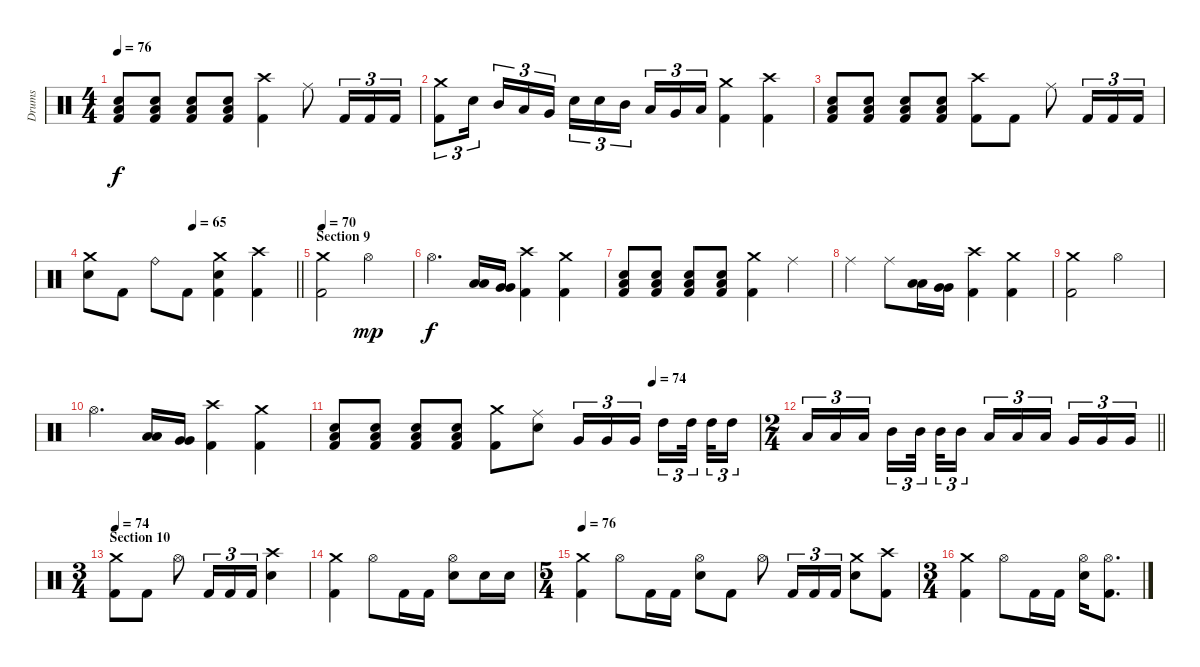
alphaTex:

\track ("Drums" "Drums") {instrument percussion}
\staff {score}
\articulation defaults
\ts (4 4)
\tempo 76
\clef neutral
\ks c
("Low Floor Tom (hit)" "Electric Snare (hit)" "Kick (hit) 2").8{dy f} ("Low Floor Tom (hit)" "Electric Snare (hit)" "Kick (hit) 2").8 ("Low Floor Tom (hit)" "Electric Snare (hit)" "Kick (hit) 2").8 ("Low Floor Tom (hit)" "Electric Snare (hit)" "Kick (hit) 2").8 ("Crash high (hit)" "Kick (hit) 2").4 "Ride (middle)".8 "Kick (hit) 2".16{tu (3 2)} "Kick (hit) 2".16{tu (3 2)} "Kick (hit) 2".16{tu (3 2)} |
("Crash medium (hit)" "Kick (hit) 2").8{tu (3 2)} "Electric Snare (hit)".16{tu (3 2) beam splitsecondary} "Mid Tom (hit)".16{tu (3 2)} "Low Tom (hit)".16{tu (3 2)} "Very Low Tom (hit)".16{tu (3 2)} "Electric Snare (hit)".16{tu (3 2)} "Electric Snare (hit)".16{tu (3 2)} "Mid Tom (hit)".16{tu (3 2) beam splitsecondary} "Low Tom (hit)".16{tu (3 2)} "Very Low Tom (hit)".16{tu (3 2)} "Low Floor Tom (hit)".16{tu (3 2)} ("Crash medium (hit)" "Kick (hit) 2").4 ("Crash high (hit)" "Kick (hit) 2").4 |
("Low Floor Tom (hit)" "Electric Snare (hit)" "Kick (hit) 2").8 ("Low Floor Tom (hit)" "Electric Snare (hit)" "Kick (hit) 2").8 ("Low Floor Tom (hit)" "Electric Snare (hit)" "Kick (hit) 2").8 ("Low Floor Tom (hit)" "Electric Snare (hit)" "Kick (hit) 2").8 ("Crash high (hit)" "Kick (hit) 2").8 "Kick (hit) 2".8 "Ride (middle)".8 "Kick (hit) 2".16{tu (3 2)} "Kick (hit) 2".16{tu (3 2)} "Kick (hit) 2".16{tu (3 2)} |
\tempo (65 0.5)
\barLineRight lightlight
("Crash medium (hit)" "Electric Snare (hit)").8 "Kick (hit) 2".8 "Ride (bell)".8 "Kick (hit) 2".8 ("Crash medium (hit)" "Electric Snare (hit)" "Kick (hit) 2").4 ("Crash high (hit)" "Kick (hit) 2").4 |
\section ("" "Section 9")
\tempo 70
("Crash medium (hit)" "Kick (hit) 2").2 "Hi-Hat (open)".2{dy mp} |
"Hi-Hat (open)".4{d dy f} ("Low Tom (hit)" "Low Tom (hit)").16 ("Very Low Tom (hit)" "Very Low Tom (hit)").16 ("Crash high (hit)" "Kick (hit) 2").4 ("Crash medium (hit)" "Kick (hit) 2").4 |
("Low Floor Tom (hit)" "Electric Snare (hit)" "Kick (hit) 2").8 ("Low Floor Tom (hit)" "Electric Snare (hit)" "Kick (hit) 2").8 ("Low Floor Tom (hit)" "Electric Snare (hit)" "Kick (hit) 2").8 ("Low Floor Tom (hit)" "Electric Snare (hit)" "Kick (hit) 2").8 ("Crash medium (hit)" "Kick (hit) 2").4 "Ride (middle)".4 |
"Ride (middle)".4 "Ride (middle)".8 ("Low Tom (hit)" "Low Tom (hit)").16 ("Very Low Tom (hit)" "Very Low Tom (hit)").16 ("Crash high (hit)" "Kick (hit) 2").4 ("Crash medium (hit)" "Kick (hit) 2").4 |
("Crash medium (hit)" "Kick (hit) 2").2 "Hi-Hat (open)".2 |
"Hi-Hat (open)".4{d} ("Low Tom (hit)" "Low Tom (hit)").16 ("Very Low Tom (hit)" "Very Low Tom (hit)").16 ("Crash high (hit)" "Kick (hit) 2").4 ("Crash medium (hit)" "Kick (hit) 2").4 |
\tempo (74 0.75)
("Low Floor Tom (hit)" "Electric Snare (hit)" "Kick (hit) 2").8 ("Low Floor Tom (hit)" "Electric Snare (hit)" "Kick (hit) 2").8 ("Low Floor Tom (hit)" "Electric Snare (hit)" "Kick (hit) 2").8 ("Low Floor Tom (hit)" "Electric Snare (hit)" "Kick (hit) 2").8 ("Crash medium (hit)" "Kick (hit) 2").8 ("Ride (middle)" "Electric Snare (hit)").8 "Very Low Tom (hit)".16{tu (3 2)} "Very Low Tom (hit)".16{tu (3 2)} "Very Low Tom (hit)".16{tu (3 2) beam splitsecondary} "High Tom (hit)".16{tu (3 2)} "High Tom (hit)".32{tu (3 2) beam splitsecondary} "High Tom (hit)".32{tu (3 2)} "High Tom (hit)".16{tu (3 2)} |
\ts (2 4)
\barLineRight lightlight "Low Tom (hit)".16{tu (3 2)} "Low Tom (hit)".16{tu (3 2)} "Low Tom (hit)".16{tu (3 2) beam splitsecondary} "Mid Tom (hit)".16{tu (3 2)} "Mid Tom (hit)".32{tu (3 2) beam splitsecondary} "Mid Tom (hit)".32{tu (3 2)} "Mid Tom (hit)".16{tu (3 2)} "Low Floor Tom (hit)".16{tu (3 2)} "Low Floor Tom (hit)".16{tu (3 2)} "Low Floor Tom (hit)".16{tu (3 2) beam splitsecondary} "Very Low Tom (hit)".16{tu (3 2)} "Very Low Tom (hit)".16{tu (3 2)} "Very Low Tom (hit)".16{tu (3 2)}
|
\ts (3 4)
\section ("" "Section 10")
\tempo 74
("Crash medium (hit)" "Kick (hit) 2").8 "Kick (hit) 2".8 "Hi-Hat (open)".8 "Kick (hit) 2".16{tu (3 2)} "Kick (hit) 2".16{tu (3 2)} "Kick (hit) 2".16{tu (3 2)} ("Crash high (hit)" "Electric Snare (hit)").4 |
("Crash medium (hit)" "Kick (hit) 2").4 "Hi-Hat (open)".8 "Kick (hit) 2".16 "Kick (hit) 2".16 ("Hi-Hat (open)" "Electric Snare (hit)").8 "Electric Snare (hit)".16 "Electric Snare (hit)".16 |
\ts (5 4)
\tempo 76
("Crash medium (hit)" "Kick (hit) 2").4 "Hi-Hat (open)".8 "Kick (hit) 2".16 "Kick (hit) 2".16 ("Hi-Hat (open)" "Electric Snare (hit)").8 "Kick (hit) 2".8 "Hi-Hat (open)".8 "Kick (hit) 2".16{tu (3 2)} "Kick (hit) 2".16{tu (3 2)} "Kick (hit) 2".16{tu (3 2)} ("Crash medium (hit)" "Electric Snare (hit)").8 ("Crash high (hit)" "Kick (hit) 2").8 |
\ts (3 4)
("Crash medium (hit)" "Kick (hit) 2").4 "Hi-Hat (open)".8 "Kick (hit) 2".16 "Kick (hit) 2".16 ("Hi-Hat (open)" "Electric Snare (hit)").16 ("Hi-Hat (open)" "Kick (hit) 2").8{d}
